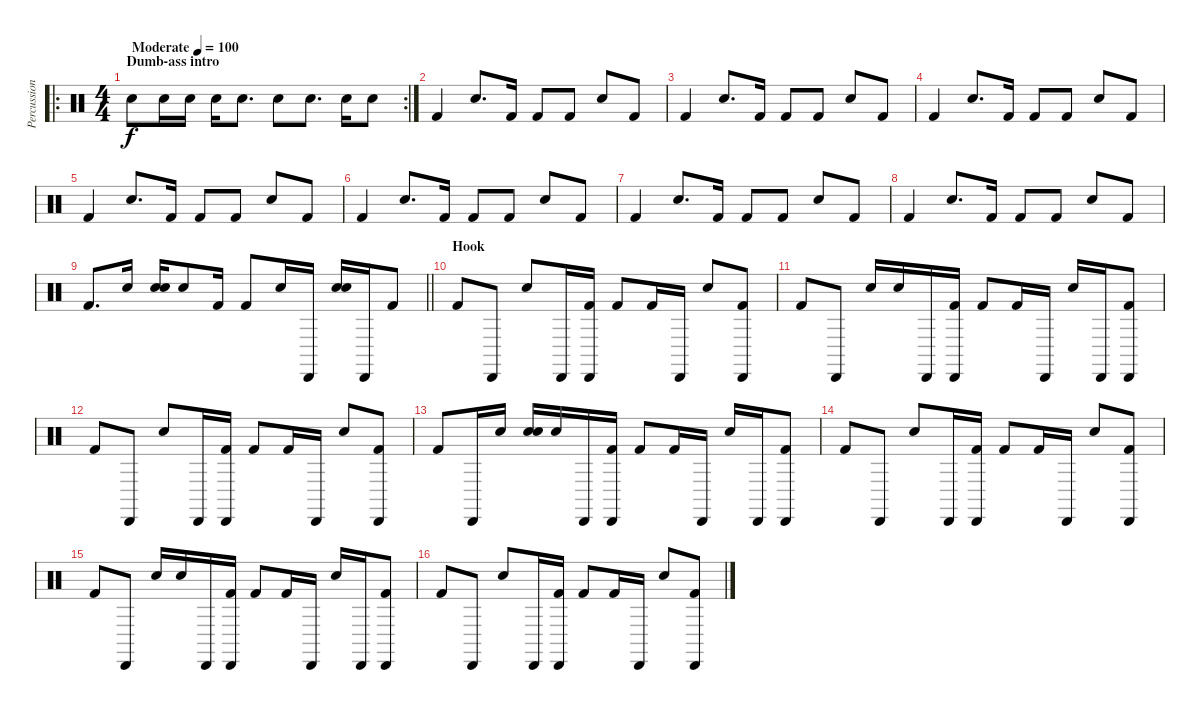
\track ("Percussion" "Percussion") {instrument percussion}
\staff {score}
\articulation defaults
\ro
\rc 2
\ts (4 4)
\section ("" "Dumb-ass intro")
\tempo (100 "Moderate")
\clef neutral
\ks c "Hand Clap (hit)".8{dy f} "Hand Clap (hit)".16 "Hand Clap (hit)".16 "Hand Clap (hit)".16 "Hand Clap (hit)".8{d} "Hand Clap (hit)".8 "Hand Clap (hit)".8{d} "Hand Clap (hit)".16 "Hand Clap (hit)".8
|
"Kick (hit) 2".4 "Hand Clap (hit)".8{d} "Kick (hit) 2".16 "Kick (hit) 2".8 "Kick (hit) 2".8 "Hand Clap (hit)".8 "Kick (hit) 2".8 |
"Kick (hit) 2".4 "Hand Clap (hit)".8{d} "Kick (hit) 2".16 "Kick (hit) 2".8 "Kick (hit) 2".8 "Hand Clap (hit)".8 "Kick (hit) 2".8 |
"Kick (hit) 2".4 "Hand Clap (hit)".8{d} "Kick (hit) 2".16 "Kick (hit) 2".8 "Kick (hit) 2".8 "Hand Clap (hit)".8 "Kick (hit) 2".8 |
"Kick (hit) 2".4 "Hand Clap (hit)".8{d} "Kick (hit) 2".16 "Kick (hit) 2".8 "Kick (hit) 2".8 "Hand Clap (hit)".8 "Kick (hit) 2".8 |
"Kick (hit) 2".4 "Hand Clap (hit)".8{d} "Kick (hit) 2".16 "Kick (hit) 2".8 "Kick (hit) 2".8 "Hand Clap (hit)".8 "Kick (hit) 2".8 |
"Kick (hit) 2".4 "Hand Clap (hit)".8{d} "Kick (hit) 2".16 "Kick (hit) 2".8 "Kick (hit) 2".8 "Hand Clap (hit)".8 "Kick (hit) 2".8 |
"Kick (hit) 2".4 "Hand Clap (hit)".8{d} "Kick (hit) 2".16 "Kick (hit) 2".8 "Kick (hit) 2".8 "Hand Clap (hit)".8 "Kick (hit) 2".8 |
\barLineRight lightlight "Kick (hit) 2".8{d} "Snare (hit) 2".16
("Hand Clap (hit)" "Snare (hit) 2").16 "Snare (hit) 2".8 "Kick (hit) 2".16 "Kick (hit) 2".8 "Snare (hit) 2".16 "Cabasa (hit)".16 ("Hand Clap (hit)" "Snare (hit) 2").16 "Cabasa (hit)".16 "Kick (hit) 2".8 |
\section ("" "Hook")
"Kick (hit) 2".8 "Cabasa (hit)".8 "Hand Clap (hit)".8 "Cabasa (hit)".16 ("Cabasa (hit)" "Kick (hit) 2").16 "Kick (hit) 2".8 "Kick (hit) 2".16 "Cabasa (hit)".16 "Hand Clap (hit)".8 ("Cabasa (hit)" "Kick (hit) 2").8 |
"Kick (hit) 2".8 "Cabasa (hit)".8 "Hand Clap (hit)".16 "Hand Clap (hit)".16 "Cabasa (hit)".16 ("Cabasa (hit)" "Kick (hit) 2").16 "Kick (hit) 2".8 "Kick (hit) 2".16 "Cabasa (hit)".16 "Hand Clap (hit)".16 "Cabasa (hit)".16 ("Cabasa (hit)" "Kick (hit) 2").8 |
"Kick (hit) 2".8 "Cabasa (hit)".8 "Hand Clap (hit)".8 "Cabasa (hit)".16 ("Cabasa (hit)" "Kick (hit) 2").16 "Kick (hit) 2".8 "Kick (hit) 2".16 "Cabasa (hit)".16 "Hand Clap (hit)".8 ("Cabasa (hit)" "Kick (hit) 2").8 |
"Kick (hit) 2".8 "Cabasa (hit)".16 "Snare (hit) 2".16 ("Hand Clap (hit)" "Snare (hit) 2").16 "Snare (hit) 2".16 "Cabasa (hit)".16 ("Cabasa (hit)" "Kick (hit) 2").16 "Kick (hit) 2".8 "Kick (hit) 2".16 "Cabasa (hit)".16 "Hand Clap (hit)".16 "Cabasa (hit)".16 ("Cabasa (hit)" "Kick (hit) 2").8 |
"Kick (hit) 2".8 "Cabasa (hit)".8 "Hand Clap (hit)".8 "Cabasa (hit)".16 ("Cabasa (hit)" "Kick (hit) 2").16 "Kick (hit) 2".8 "Kick (hit) 2".16 "Cabasa (hit)".16 "Hand Clap (hit)".8 ("Cabasa (hit)" "Kick (hit) 2").8 |
"Kick (hit) 2".8 "Cabasa (hit)".8 "Hand Clap (hit)".16 "Hand Clap (hit)".16 "Cabasa (hit)".16 ("Cabasa (hit)" "Kick (hit) 2").16 "Kick (hit) 2".8 "Kick (hit) 2".16 "Cabasa (hit)".16 "Hand Clap (hit)".16 "Cabasa (hit)".16 ("Cabasa (hit)" "Kick (hit) 2").8 |
"Kick (hit) 2".8 "Cabasa (hit)".8 "Hand Clap (hit)".8 "Cabasa (hit)".16 ("Cabasa (hit)" "Kick (hit) 2").16 "Kick (hit) 2".8 "Kick (hit) 2".16 "Cabasa (hit)".16 "Hand Clap (hit)".8 ("Cabasa (hit)" "Kick (hit) 2").8
